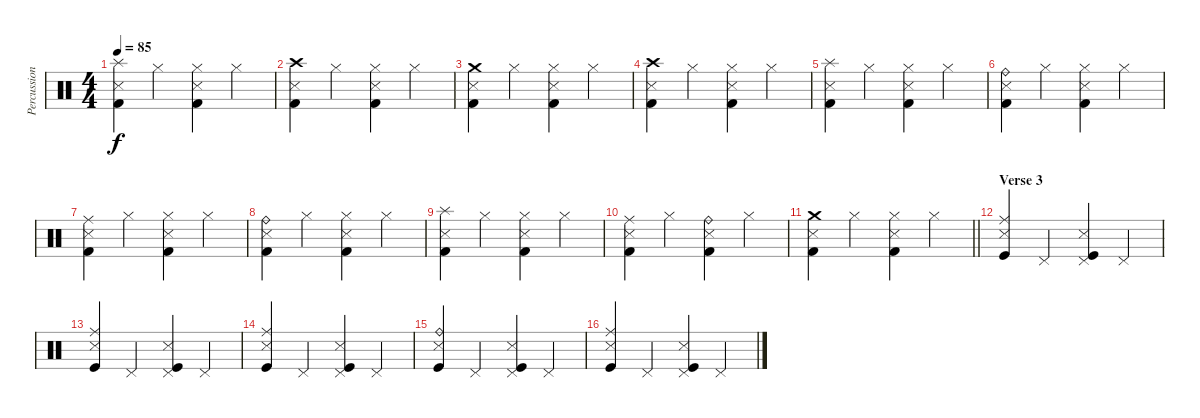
\track ("Percussion" "Percussion") {instrument percussion}
\staff {score}
\articulation defaults
\ts (4 4)
\tempo 85
\clef neutral
\ks c
("Splash (hit)" "Snare (side stick) 3" "Kick (hit) 2").4{dy f} "Hi-Hat (closed)".4 ("Hi-Hat (closed)" "Snare (side stick) 3" "Kick (hit) 2").4 "Hi-Hat (closed)".4 |
("Crash high (hit)" "Snare (side stick) 3" "Kick (hit) 2").4 "Hi-Hat (closed)".4 ("Hi-Hat (closed)" "Snare (side stick) 3" "Kick (hit) 2").4 "Hi-Hat (closed)".4 |
("Crash medium (hit)" "Snare (side stick) 3" "Kick (hit) 2").4 "Hi-Hat (closed)".4 ("Hi-Hat (closed)" "Snare (side stick) 3" "Kick (hit) 2").4 "Hi-Hat (closed)".4 |
("Crash high (hit)" "Snare (side stick) 3" "Kick (hit) 2").4 "Hi-Hat (closed)".4 ("Hi-Hat (closed)" "Snare (side stick) 3" "Kick (hit) 2").4 "Hi-Hat (closed)".4 |
("Splash (hit)" "Snare (side stick) 3" "Kick (hit) 2").4 "Hi-Hat (closed)".4 ("Hi-Hat (closed)" "Snare (side stick) 3" "Kick (hit) 2").4 "Hi-Hat (closed)".4 |
("Ride (bell)" "Snare (side stick) 3" "Kick (hit) 2").4 "Hi-Hat (closed)".4 ("Hi-Hat (closed)" "Snare (side stick) 3" "Kick (hit) 2").4 "Hi-Hat (closed)".4 |
("Ride (middle)" "Snare (side stick) 3" "Kick (hit) 2").4 "Hi-Hat (closed)".4 ("Hi-Hat (closed)" "Snare (side stick) 3" "Kick (hit) 2").4 "Hi-Hat (closed)".4 |
("Ride (bell)" "Snare (side stick) 3" "Kick (hit) 2").4 "Hi-Hat (closed)".4 ("Hi-Hat (closed)" "Snare (side stick) 3" "Kick (hit) 2").4 "Hi-Hat (closed)".4 |
("Splash (hit)" "Snare (side stick) 3" "Kick (hit) 2").4 "Hi-Hat (closed)".4 ("Hi-Hat (closed)" "Snare (side stick) 3" "Kick (hit) 2").4 "Hi-Hat (closed)".4 |
("Ride (middle)" "Snare (side stick) 3" "Kick (hit) 2").4 "Hi-Hat (closed)".4 ("Ride (bell)" "Snare (side stick) 3" "Kick (hit) 2").4 "Hi-Hat (closed)".4 |
\barLineRight lightlight
("Crash medium (hit)" "Snare (side stick) 3" "Kick (hit) 2").4 "Hi-Hat (closed)".4 ("Hi-Hat (closed)" "Snare (side stick) 3" "Kick (hit) 2").4 "Hi-Hat (closed)".4 |
\section ("" "Verse 3")
("Ride (middle)" "Snare (side stick) 3" "Kick (hit)").4 "Pedal Hi-Hat (hit)".4 ("Pedal Hi-Hat (hit)" "Snare (side stick) 3" "Kick (hit)").4 "Pedal Hi-Hat (hit)".4 |
("Ride (middle)" "Snare (side stick) 3" "Kick (hit)").4 "Pedal Hi-Hat (hit)".4 ("Pedal Hi-Hat (hit)" "Snare (side stick) 3" "Kick (hit)").4 "Pedal Hi-Hat (hit)".4 |
("Ride (middle)" "Snare (side stick) 3" "Kick (hit)").4 "Pedal Hi-Hat (hit)".4 ("Pedal Hi-Hat (hit)" "Snare (side stick) 3" "Kick (hit)").4 "Pedal Hi-Hat (hit)".4 |
("Ride (bell)" "Snare (side stick) 3" "Kick (hit)").4 "Pedal Hi-Hat (hit)".4 ("Pedal Hi-Hat (hit)" "Snare (side stick) 3" "Kick (hit)").4 "Pedal Hi-Hat (hit)".4 |
("Ride (middle)" "Snare (side stick) 3" "Kick (hit)").4 "Pedal Hi-Hat (hit)".4 ("Pedal Hi-Hat (hit)" "Snare (side stick) 3" "Kick (hit)").4 "Pedal Hi-Hat (hit)".4
